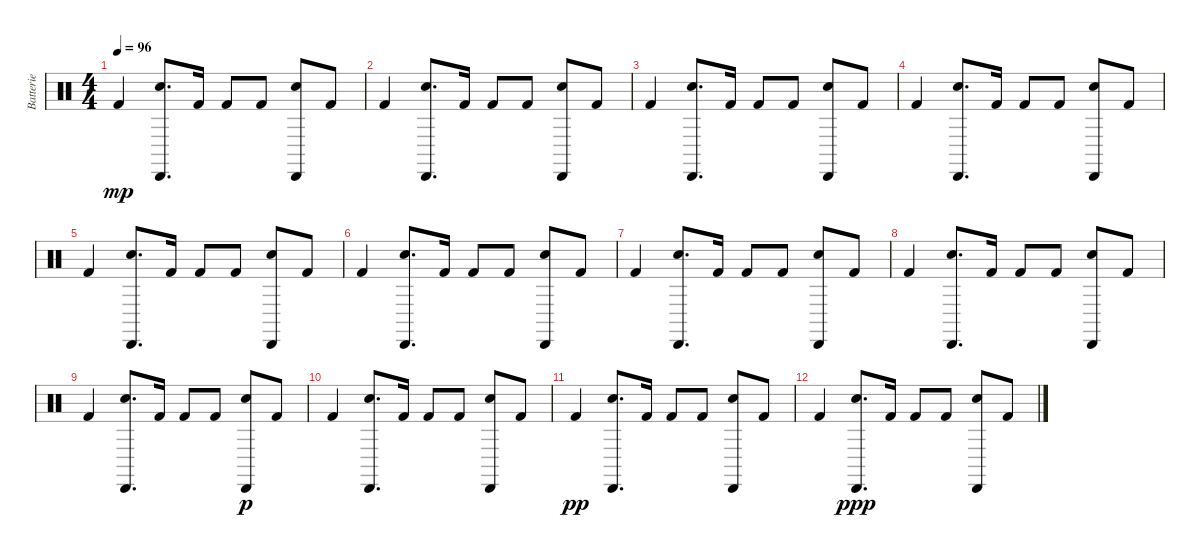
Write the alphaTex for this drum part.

\track ("Batterie" "Batterie") {instrument percussion}
\staff {score}
\articulation defaults
\ts (4 4)
\tempo 96
\clef neutral
\ks c "Kick (hit) 2".4{dy mp}
("Electric Snare (hit)" "Cabasa (hit)").8{d} "Kick (hit) 2".16 "Kick (hit) 2".8 "Kick (hit) 2".8 ("Cabasa (hit)" "Electric Snare (hit)").8 "Kick (hit) 2".8 |
"Kick (hit) 2".4 ("Electric Snare (hit)" "Cabasa (hit)").8{d} "Kick (hit) 2".16 "Kick (hit) 2".8 "Kick (hit) 2".8 ("Cabasa (hit)" "Electric Snare (hit)").8 "Kick (hit) 2".8 |
"Kick (hit) 2".4 ("Electric Snare (hit)" "Cabasa (hit)").8{d} "Kick (hit) 2".16 "Kick (hit) 2".8 "Kick (hit) 2".8 ("Cabasa (hit)" "Electric Snare (hit)").8 "Kick (hit) 2".8 |
"Kick (hit) 2".4 ("Electric Snare (hit)" "Cabasa (hit)").8{d} "Kick (hit) 2".16 "Kick (hit) 2".8 "Kick (hit) 2".8 ("Cabasa (hit)" "Electric Snare (hit)").8 "Kick (hit) 2".8 |
"Kick (hit) 2".4 ("Electric Snare (hit)" "Cabasa (hit)").8{d} "Kick (hit) 2".16 "Kick (hit) 2".8 "Kick (hit) 2".8 ("Cabasa (hit)" "Electric Snare (hit)").8 "Kick (hit) 2".8 |
"Kick (hit) 2".4 ("Electric Snare (hit)" "Cabasa (hit)").8{d} "Kick (hit) 2".16 "Kick (hit) 2".8 "Kick (hit) 2".8 ("Cabasa (hit)" "Electric Snare (hit)").8 "Kick (hit) 2".8 |
"Kick (hit) 2".4 ("Electric Snare (hit)" "Cabasa (hit)").8{d} "Kick (hit) 2".16 "Kick (hit) 2".8 "Kick (hit) 2".8 ("Cabasa (hit)" "Electric Snare (hit)").8 "Kick (hit) 2".8 |
"Kick (hit) 2".4 ("Electric Snare (hit)" "Cabasa (hit)").8{d} "Kick (hit) 2".16 "Kick (hit) 2".8 "Kick (hit) 2".8 ("Cabasa (hit)" "Electric Snare (hit)").8 "Kick (hit) 2".8 |
"Kick (hit) 2".4 ("Electric Snare (hit)" "Cabasa (hit)").8{d} "Kick (hit) 2".16{volume 9} "Kick (hit) 2".8 "Kick (hit) 2".8 ("Cabasa (hit)" "Electric Snare (hit)").8{dy p} "Kick (hit) 2".8{volume 8} |
"Kick (hit) 2".4 ("Electric Snare (hit)" "Cabasa (hit)").8{d} "Kick (hit) 2".16{volume 7} "Kick (hit) 2".8 "Kick (hit) 2".8 ("Cabasa (hit)" "Electric Snare (hit)").8 "Kick (hit) 2".8{volume 6} |
"Kick (hit) 2".4{dy pp} ("Electric Snare (hit)" "Cabasa (hit)").8{d} "Kick (hit) 2".16{volume 5} "Kick (hit) 2".8 "Kick (hit) 2".8 ("Cabasa (hit)" "Electric Snare (hit)").8 "Kick (hit) 2".8{volume 4} |
"Kick (hit) 2".4 ("Electric Snare (hit)" "Cabasa (hit)").8{d dy ppp} "Kick (hit) 2".16{volume 3} "Kick (hit) 2".8 "Kick (hit) 2".8 ("Cabasa (hit)" "Electric Snare (hit)").8 "Kick (hit) 2".8{volume 2}
